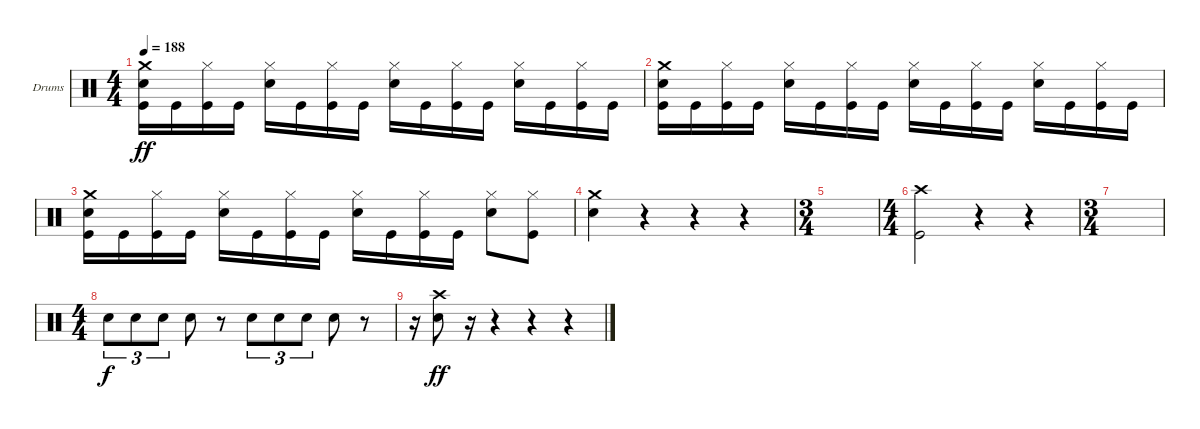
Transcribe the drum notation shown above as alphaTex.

\bracketExtendMode groupsimilarinstruments
\firstSystemTrackNameOrientation horizontal
\otherSystemsTrackNameOrientation horizontal
\track ("Drums" "Drums") {instrument percussion}
\staff {score}
\articulation defaults
\ts (4 4)
\tempo 188
\clef neutral
\ks c
("Kick (hit)" "Crash medium (hit)" "Snare (hit) 2").16{dy ff} "Kick (hit)".16 ("Kick (hit)" "Hi-Hat (closed)").16 "Kick (hit)".16 ("Snare (hit) 2" "Hi-Hat (closed)").16 "Kick (hit)".16 ("Kick (hit)" "Hi-Hat (closed)").16 "Kick (hit)".16 ("Snare (hit) 2" "Hi-Hat (closed)").16 "Kick (hit)".16 ("Kick (hit)" "Hi-Hat (closed)").16 "Kick (hit)".16 ("Snare (hit) 2" "Hi-Hat (closed)").16 "Kick (hit)".16 ("Kick (hit)" "Hi-Hat (closed)").16 "Kick (hit)".16 |
("Kick (hit)" "Crash medium (hit)" "Snare (hit) 2").16 "Kick (hit)".16 ("Kick (hit)" "Hi-Hat (closed)").16 "Kick (hit)".16 ("Snare (hit) 2" "Hi-Hat (closed)").16 "Kick (hit)".16 ("Kick (hit)" "Hi-Hat (closed)").16 "Kick (hit)".16 ("Snare (hit) 2" "Hi-Hat (closed)").16 "Kick (hit)".16 ("Kick (hit)" "Hi-Hat (closed)").16 "Kick (hit)".16 ("Snare (hit) 2" "Hi-Hat (closed)").16 "Kick (hit)".16 ("Kick (hit)" "Hi-Hat (closed)").16 "Kick (hit)".16 |
("Kick (hit)" "Crash medium (hit)" "Snare (hit) 2").16 "Kick (hit)".16 ("Kick (hit)" "Hi-Hat (closed)").16 "Kick (hit)".16 ("Snare (hit) 2" "Hi-Hat (closed)").16 "Kick (hit)".16 ("Kick (hit)" "Hi-Hat (closed)").16 "Kick (hit)".16 ("Snare (hit) 2" "Hi-Hat (closed)").16 "Kick (hit)".16 ("Kick (hit)" "Hi-Hat (closed)").16 "Kick (hit)".16 ("Snare (hit) 2" "Hi-Hat (closed)").8 ("Kick (hit)" "Hi-Hat (closed)").8 |
("Snare (hit) 2" "Crash medium (hit)").4 r.4 r.4 r.4 |
\ts (3 4)
|
\ts (4 4)
("Kick (hit)" "Crash high (hit)").2 r.4 r.4 |
\ts (3 4)
|
\ts (4 4)
"Snare (hit) 2".8{tu (3 2) dy f} "Snare (hit) 2".8{tu (3 2)} "Snare (hit) 2".8{tu (3 2)} "Snare (hit) 2".8 r.8 "Snare (hit) 2".8{tu (3 2)} "Snare (hit) 2".8{tu (3 2)} "Snare (hit) 2".8{tu (3 2)} "Snare (hit) 2".8 r.8 |
r.16 ("Crash high (hit)" "Snare (hit) 2").8{dy ff} r.16 r.4 r.4 r.4
